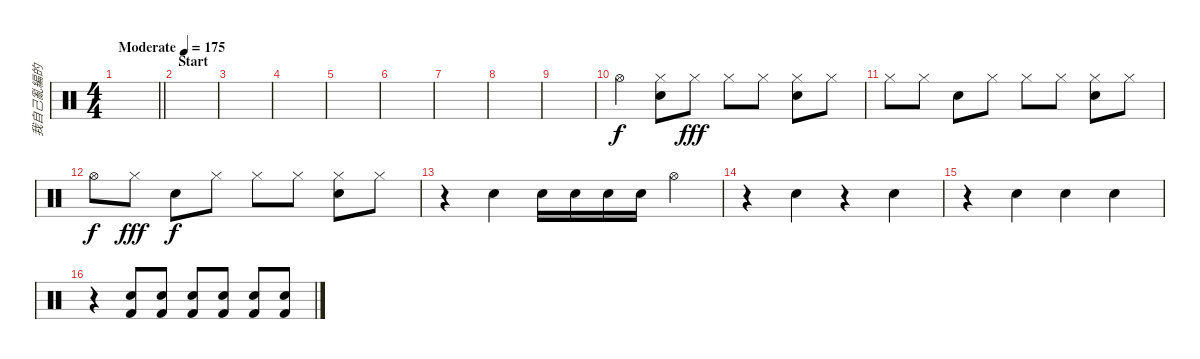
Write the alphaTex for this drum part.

\track ("我自己亂編的" "我自己亂編的") {instrument percussion}
\staff {score}
\articulation defaults
\ts (4 4)
\tempo (175 "Moderate")
\clef neutral
\barLineRight lightlight
\ks c
|
\section ("" "Start")
|
|
|
|
|
|
|
|
"Hi-Hat (open)".4 ("Electric Snare (hit)" "Hi-Hat (closed)").8 "Hi-Hat (closed)".8{dy fff} "Hi-Hat (closed)".8 "Hi-Hat (closed)".8 ("Electric Snare (hit)" "Hi-Hat (closed)").8 "Hi-Hat (closed)".8 |
"Hi-Hat (closed)".8 "Hi-Hat (closed)".8 "Electric Snare (hit)".8 "Hi-Hat (closed)".8 "Hi-Hat (closed)".8 "Hi-Hat (closed)".8 ("Electric Snare (hit)" "Hi-Hat (closed)").8 "Hi-Hat (closed)".8 |
"Hi-Hat (open)".8{dy f} "Hi-Hat (closed)".8{dy fff} "Snare (hit) 2".8{dy f} "Hi-Hat (closed)".8 "Hi-Hat (closed)".8 "Hi-Hat (closed)".8 ("Hi-Hat (closed)" "Snare (hit) 2").8 "Hi-Hat (closed)".8 |
r.4 "Electric Snare (hit)".4 "Electric Snare (hit)".16 "Electric Snare (hit)".16 "Electric Snare (hit)".16 "Electric Snare (hit)".16 "Hi-Hat (open)".4 |
r.4 "Electric Snare (hit)".4 r.4 "Electric Snare (hit)".4 |
r.4 "Electric Snare (hit)".4 "Electric Snare (hit)".4 "Electric Snare (hit)".4 |
r.4 ("Electric Snare (hit)" "Kick (hit) 2").8 ("Electric Snare (hit)" "Kick (hit) 2").8 ("Electric Snare (hit)" "Kick (hit) 2").8 ("Electric Snare (hit)" "Kick (hit) 2").8 ("Electric Snare (hit)" "Kick (hit) 2").8 ("Electric Snare (hit)" "Kick (hit) 2").8
